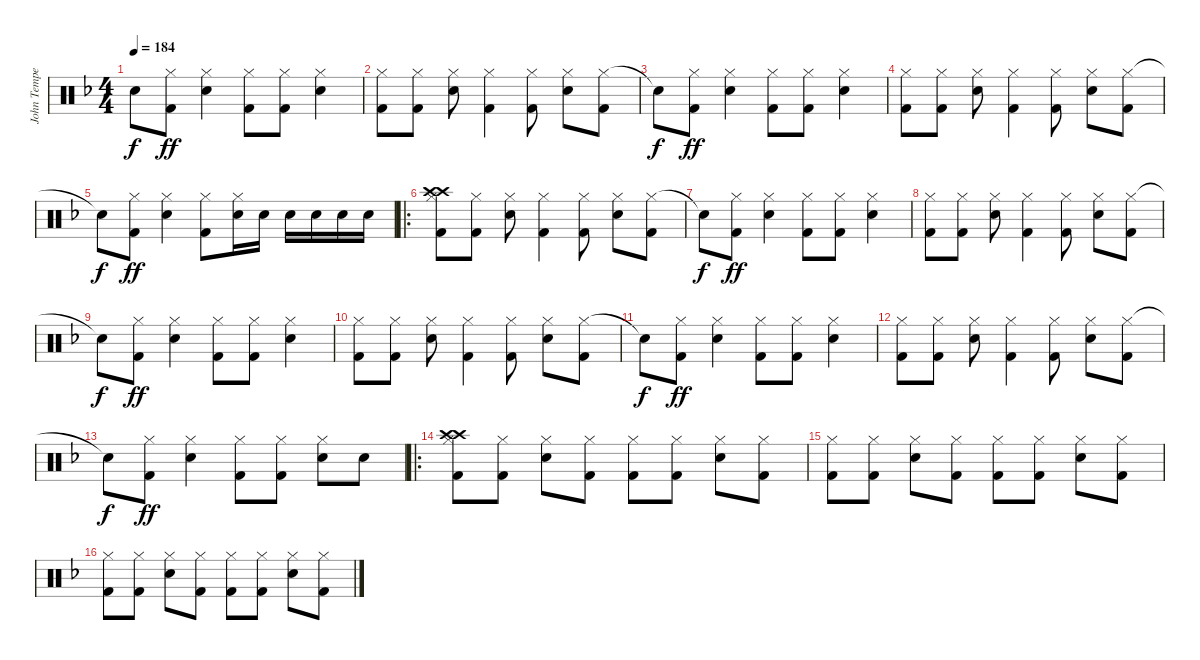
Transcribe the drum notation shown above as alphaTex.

\track ("John Tempesta " "John Tempe") {instrument percussion}
\staff {score}
\articulation defaults
\ts (4 4)
\tempo 184
\clef neutral
\ks f "Snare (hit)"{t}.8{dy f}
("Hi-Hat (closed)" "Kick (hit) 2").8{dy ff} ("Hi-Hat (closed)" "Electric Snare (hit)").4 ("Hi-Hat (closed)" "Kick (hit) 2").8 ("Hi-Hat (closed)" "Kick (hit) 2").8 ("Hi-Hat (closed)" "Electric Snare (hit)").4 |
("Hi-Hat (closed)" "Kick (hit) 2").8 ("Hi-Hat (closed)" "Kick (hit) 2").8 ("Hi-Hat (closed)" "Electric Snare (hit)").8 ("Hi-Hat (closed)" "Kick (hit) 2").4 ("Hi-Hat (closed)" "Kick (hit) 2").8 ("Hi-Hat (closed)" "Electric Snare (hit)").8 ("Hi-Hat (closed)" "Kick (hit) 2").8 |
"Snare (hit)"{t}.8{dy f} ("Hi-Hat (closed)" "Kick (hit) 2").8{dy ff} ("Hi-Hat (closed)" "Electric Snare (hit)").4 ("Hi-Hat (closed)" "Kick (hit) 2").8 ("Hi-Hat (closed)" "Kick (hit) 2").8 ("Hi-Hat (closed)" "Electric Snare (hit)").4 |
("Hi-Hat (closed)" "Kick (hit) 2").8 ("Hi-Hat (closed)" "Kick (hit) 2").8 ("Hi-Hat (closed)" "Electric Snare (hit)").8 ("Hi-Hat (closed)" "Kick (hit) 2").4 ("Hi-Hat (closed)" "Kick (hit) 2").8 ("Hi-Hat (closed)" "Electric Snare (hit)").8 ("Hi-Hat (closed)" "Kick (hit) 2").8 |
"Snare (hit)"{t}.8{dy f} ("Hi-Hat (closed)" "Kick (hit) 2").8{dy ff} ("Hi-Hat (closed)" "Electric Snare (hit)").4 ("Hi-Hat (closed)" "Kick (hit) 2").8 ("Hi-Hat (closed)" "Electric Snare (hit)").16 "Electric Snare (hit)".16 "Electric Snare (hit)".16 "Electric Snare (hit)".16 "Electric Snare (hit)".16 "Electric Snare (hit)".16 |
\ro
("Hi-Hat (closed)" "Kick (hit) 2" "Crash high (hit)" "Crash high (hit)").8 ("Hi-Hat (closed)" "Kick (hit) 2").8 ("Hi-Hat (closed)" "Electric Snare (hit)").8 ("Hi-Hat (closed)" "Kick (hit) 2").4 ("Hi-Hat (closed)" "Kick (hit) 2").8 ("Hi-Hat (closed)" "Electric Snare (hit)").8 ("Hi-Hat (closed)" "Kick (hit) 2").8 |
"Snare (hit)"{t}.8{dy f} ("Hi-Hat (closed)" "Kick (hit) 2").8{dy ff} ("Hi-Hat (closed)" "Electric Snare (hit)").4 ("Hi-Hat (closed)" "Kick (hit) 2").8 ("Hi-Hat (closed)" "Kick (hit) 2").8 ("Hi-Hat (closed)" "Electric Snare (hit)").4 |
("Hi-Hat (closed)" "Kick (hit) 2").8 ("Hi-Hat (closed)" "Kick (hit) 2").8 ("Hi-Hat (closed)" "Electric Snare (hit)").8 ("Hi-Hat (closed)" "Kick (hit) 2").4 ("Hi-Hat (closed)" "Kick (hit) 2").8 ("Hi-Hat (closed)" "Electric Snare (hit)").8 ("Hi-Hat (closed)" "Kick (hit) 2").8 |
"Snare (hit)"{t}.8{dy f} ("Hi-Hat (closed)" "Kick (hit) 2").8{dy ff} ("Hi-Hat (closed)" "Electric Snare (hit)").4 ("Hi-Hat (closed)" "Kick (hit) 2").8 ("Hi-Hat (closed)" "Kick (hit) 2").8 ("Hi-Hat (closed)" "Electric Snare (hit)").4 |
("Hi-Hat (closed)" "Kick (hit) 2").8 ("Hi-Hat (closed)" "Kick (hit) 2").8 ("Hi-Hat (closed)" "Electric Snare (hit)").8 ("Hi-Hat (closed)" "Kick (hit) 2").4 ("Hi-Hat (closed)" "Kick (hit) 2").8 ("Hi-Hat (closed)" "Electric Snare (hit)").8 ("Hi-Hat (closed)" "Kick (hit) 2").8 |
"Snare (hit)"{t}.8{dy f} ("Hi-Hat (closed)" "Kick (hit) 2").8{dy ff} ("Hi-Hat (closed)" "Electric Snare (hit)").4 ("Hi-Hat (closed)" "Kick (hit) 2").8 ("Hi-Hat (closed)" "Kick (hit) 2").8 ("Hi-Hat (closed)" "Electric Snare (hit)").4 |
("Hi-Hat (closed)" "Kick (hit) 2").8 ("Hi-Hat (closed)" "Kick (hit) 2").8 ("Hi-Hat (closed)" "Electric Snare (hit)").8 ("Hi-Hat (closed)" "Kick (hit) 2").4 ("Hi-Hat (closed)" "Kick (hit) 2").8 ("Hi-Hat (closed)" "Electric Snare (hit)").8 ("Hi-Hat (closed)" "Kick (hit) 2").8 |
"Snare (hit)"{t}.8{dy f} ("Hi-Hat (closed)" "Kick (hit) 2").8{dy ff} ("Hi-Hat (closed)" "Electric Snare (hit)").4 ("Hi-Hat (closed)" "Kick (hit) 2").8 ("Hi-Hat (closed)" "Kick (hit) 2").8 ("Hi-Hat (closed)" "Electric Snare (hit)").8 "Electric Snare (hit)".8 |
\ro
("Hi-Hat (closed)" "Kick (hit) 2" "Crash high (hit)" "Crash high (hit)").8 ("Hi-Hat (closed)" "Kick (hit) 2").8 ("Hi-Hat (closed)" "Electric Snare (hit)").8 ("Hi-Hat (closed)" "Kick (hit) 2").8 ("Hi-Hat (closed)" "Kick (hit) 2").8 ("Hi-Hat (closed)" "Kick (hit) 2").8 ("Hi-Hat (closed)" "Electric Snare (hit)").8 ("Hi-Hat (closed)" "Kick (hit) 2").8 |
("Hi-Hat (closed)" "Kick (hit) 2").8 ("Hi-Hat (closed)" "Kick (hit) 2").8 ("Hi-Hat (closed)" "Electric Snare (hit)").8 ("Hi-Hat (closed)" "Kick (hit) 2").8 ("Hi-Hat (closed)" "Kick (hit) 2").8 ("Hi-Hat (closed)" "Kick (hit) 2").8 ("Hi-Hat (closed)" "Electric Snare (hit)").8 ("Hi-Hat (closed)" "Kick (hit) 2").8 |
("Hi-Hat (closed)" "Kick (hit) 2").8 ("Hi-Hat (closed)" "Kick (hit) 2").8 ("Hi-Hat (closed)" "Electric Snare (hit)").8 ("Hi-Hat (closed)" "Kick (hit) 2").8 ("Hi-Hat (closed)" "Kick (hit) 2").8 ("Hi-Hat (closed)" "Kick (hit) 2").8 ("Hi-Hat (closed)" "Electric Snare (hit)").8 ("Hi-Hat (closed)" "Kick (hit) 2").8
